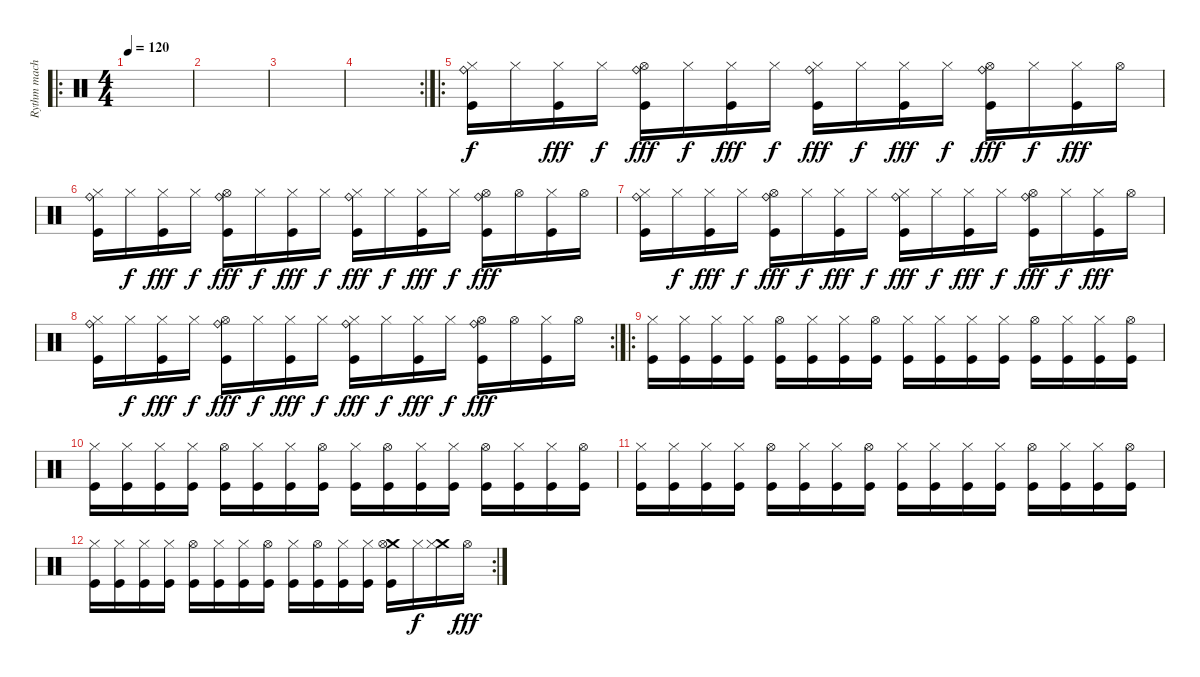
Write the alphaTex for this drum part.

\track ("Rythm machine" "Rythm mach") {instrument percussion}
\staff {score}
\articulation defaults
\ro
\ts (4 4)
\tempo 120
\clef neutral
\ks c
|
|
|
\rc 2
|
\ro
("Hi-Hat (closed)" "Ride (bell)" "Kick (hit)").16 "Hi-Hat (closed)".16{dy f} ("Hi-Hat (closed)" "Kick (hit)").16{dy fff} "Hi-Hat (closed)".16{dy f} ("Hi-Hat (open)" "Ride (bell)" "Kick (hit)").16{dy fff} "Hi-Hat (closed)".16{dy f} ("Hi-Hat (closed)" "Kick (hit)").16{dy fff} "Hi-Hat (closed)".16{dy f} ("Hi-Hat (closed)" "Ride (bell)" "Kick (hit)").16{dy fff} "Hi-Hat (closed)".16{dy f} ("Hi-Hat (closed)" "Kick (hit)").16{dy fff} "Hi-Hat (closed)".16{dy f} ("Hi-Hat (open)" "Ride (bell)" "Kick (hit)").16{dy fff} "Hi-Hat (closed)".16{dy f} ("Hi-Hat (closed)" "Kick (hit)").16{dy fff} "Hi-Hat (open)".16 |
("Hi-Hat (closed)" "Ride (bell)" "Kick (hit)").16 "Hi-Hat (closed)".16{dy f} ("Hi-Hat (closed)" "Kick (hit)").16{dy fff} "Hi-Hat (closed)".16{dy f} ("Hi-Hat (open)" "Ride (bell)" "Kick (hit)").16{dy fff} "Hi-Hat (closed)".16{dy f} ("Hi-Hat (closed)" "Kick (hit)").16{dy fff} "Hi-Hat (closed)".16{dy f} ("Hi-Hat (closed)" "Ride (bell)" "Kick (hit)").16{dy fff} "Hi-Hat (closed)".16{dy f} ("Hi-Hat (closed)" "Kick (hit)").16{dy fff} "Hi-Hat (closed)".16{dy f} ("Hi-Hat (open)" "Ride (bell)" "Kick (hit)").16{dy fff} "Hi-Hat (open)".16 ("Hi-Hat (closed)" "Kick (hit)").16 "Hi-Hat (open)".16 |
("Hi-Hat (closed)" "Ride (bell)" "Kick (hit)").16 "Hi-Hat (closed)".16{dy f} ("Hi-Hat (closed)" "Kick (hit)").16{dy fff} "Hi-Hat (closed)".16{dy f} ("Hi-Hat (open)" "Ride (bell)" "Kick (hit)").16{dy fff} "Hi-Hat (closed)".16{dy f} ("Hi-Hat (closed)" "Kick (hit)").16{dy fff} "Hi-Hat (closed)".16{dy f} ("Hi-Hat (closed)" "Ride (bell)" "Kick (hit)").16{dy fff} "Hi-Hat (closed)".16{dy f} ("Hi-Hat (closed)" "Kick (hit)").16{dy fff} "Hi-Hat (closed)".16{dy f} ("Hi-Hat (open)" "Ride (bell)" "Kick (hit)").16{dy fff} "Hi-Hat (closed)".16{dy f} ("Hi-Hat (closed)" "Kick (hit)").16{dy fff} "Hi-Hat (open)".16 |
\rc 2
("Hi-Hat (closed)" "Ride (bell)" "Kick (hit)").16 "Hi-Hat (closed)".16{dy f} ("Hi-Hat (closed)" "Kick (hit)").16{dy fff} "Hi-Hat (closed)".16{dy f} ("Hi-Hat (open)" "Ride (bell)" "Kick (hit)").16{dy fff} "Hi-Hat (closed)".16{dy f} ("Hi-Hat (closed)" "Kick (hit)").16{dy fff} "Hi-Hat (closed)".16{dy f} ("Hi-Hat (closed)" "Ride (bell)" "Kick (hit)").16{dy fff} "Hi-Hat (closed)".16{dy f} ("Hi-Hat (closed)" "Kick (hit)").16{dy fff} "Hi-Hat (closed)".16{dy f} ("Hi-Hat (open)" "Ride (bell)" "Kick (hit)").16{dy fff} "Hi-Hat (open)".16 ("Hi-Hat (closed)" "Kick (hit)").16 "Hi-Hat (open)".16 |
\ro
("Hi-Hat (closed)" "Kick (hit)").16 ("Hi-Hat (closed)" "Kick (hit)").16 ("Hi-Hat (closed)" "Kick (hit)").16 ("Hi-Hat (closed)" "Kick (hit)").16 ("Hi-Hat (open)" "Kick (hit)").16 ("Hi-Hat (closed)" "Kick (hit)").16 ("Hi-Hat (closed)" "Kick (hit)").16 ("Hi-Hat (open)" "Kick (hit)").16 ("Hi-Hat (closed)" "Kick (hit)").16 ("Hi-Hat (closed)" "Kick (hit)").16 ("Hi-Hat (closed)" "Kick (hit)").16 ("Hi-Hat (closed)" "Kick (hit)").16 ("Hi-Hat (open)" "Kick (hit)").16 ("Hi-Hat (closed)" "Kick (hit)").16 ("Hi-Hat (closed)" "Kick (hit)").16 ("Hi-Hat (open)" "Kick (hit)").16 |
("Hi-Hat (closed)" "Kick (hit)").16 ("Hi-Hat (closed)" "Kick (hit)").16 ("Hi-Hat (closed)" "Kick (hit)").16 ("Hi-Hat (closed)" "Kick (hit)").16 ("Hi-Hat (open)" "Kick (hit)").16 ("Hi-Hat (closed)" "Kick (hit)").16 ("Hi-Hat (closed)" "Kick (hit)").16 ("Hi-Hat (open)" "Kick (hit)").16 ("Hi-Hat (closed)" "Kick (hit)").16 ("Hi-Hat (open)" "Kick (hit)").16 ("Hi-Hat (closed)" "Kick (hit)").16 ("Hi-Hat (closed)" "Kick (hit)").16 ("Hi-Hat (open)" "Kick (hit)").16 ("Hi-Hat (closed)" "Kick (hit)").16 ("Hi-Hat (closed)" "Kick (hit)").16 ("Hi-Hat (open)" "Kick (hit)").16 |
("Hi-Hat (closed)" "Kick (hit)").16 ("Hi-Hat (closed)" "Kick (hit)").16 ("Hi-Hat (closed)" "Kick (hit)").16 ("Hi-Hat (closed)" "Kick (hit)").16 ("Hi-Hat (open)" "Kick (hit)").16 ("Hi-Hat (closed)" "Kick (hit)").16 ("Hi-Hat (closed)" "Kick (hit)").16 ("Hi-Hat (open)" "Kick (hit)").16 ("Hi-Hat (closed)" "Kick (hit)").16 ("Hi-Hat (closed)" "Kick (hit)").16 ("Hi-Hat (closed)" "Kick (hit)").16 ("Hi-Hat (closed)" "Kick (hit)").16 ("Hi-Hat (open)" "Kick (hit)").16 ("Hi-Hat (closed)" "Kick (hit)").16 ("Hi-Hat (closed)" "Kick (hit)").16 ("Hi-Hat (open)" "Kick (hit)").16 |
\rc 2
("Hi-Hat (closed)" "Kick (hit)").16 ("Hi-Hat (closed)" "Kick (hit)").16 ("Hi-Hat (closed)" "Kick (hit)").16 ("Hi-Hat (closed)" "Kick (hit)").16 ("Hi-Hat (open)" "Kick (hit)").16 ("Hi-Hat (closed)" "Kick (hit)").16 ("Hi-Hat (closed)" "Kick (hit)").16 ("Hi-Hat (open)" "Kick (hit)").16 ("Hi-Hat (closed)" "Kick (hit)").16 ("Hi-Hat (open)" "Kick (hit)").16 ("Hi-Hat (closed)" "Kick (hit)").16 ("Hi-Hat (closed)" "Kick (hit)").16 ("Crash medium (hit)" "Hi-Hat (open)" "Kick (hit)").16 "Hi-Hat (closed)".16{dy f} ("Crash medium (hit)" "Hi-Hat (closed)").16 "Hi-Hat (open)".16{dy fff}
